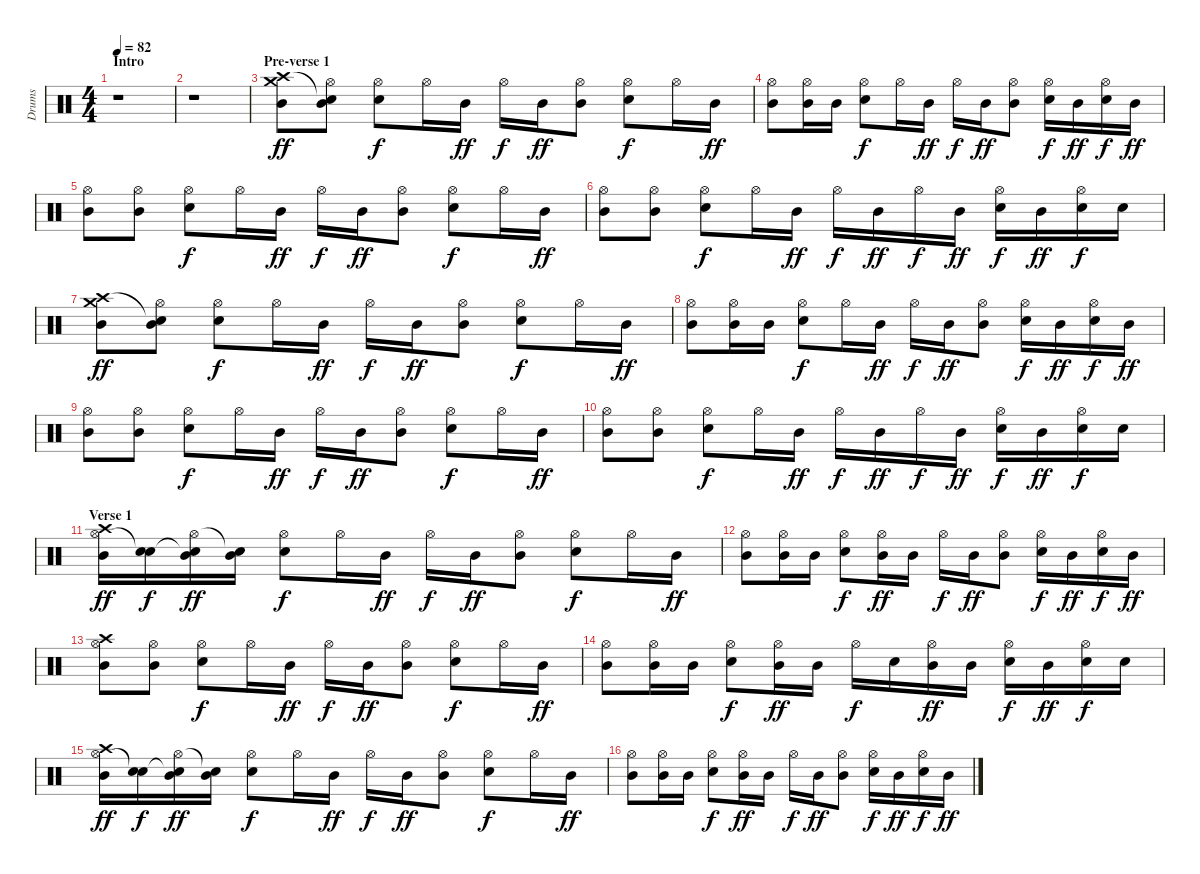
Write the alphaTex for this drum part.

\track ("Drums" "Drums") {instrument percussion}
\staff {score}
\articulation defaults
\ts (4 4)
\section ("" "Intro")
\tempo 82
\clef neutral
\ks c
r.1{dy ff} |
r.1 |
\section ("" "Pre-verse 1")
("Crash medium (hit)" "Crash high (hit)" "Mid Tom (hit)").8 ("Hi-Hat (open)" "Snare (hit)"{t} "Mid Tom (hit)").8 ("Hi-Hat (open)" "Electric Snare (hit)").8{dy f} "Hi-Hat (open)".16 "Mid Tom (hit)".16{dy ff} "Hi-Hat (open)".16{dy f} "Mid Tom (hit)".16{dy ff} ("Hi-Hat (open)" "Mid Tom (hit)").8 ("Hi-Hat (open)" "Electric Snare (hit)").8{dy f} "Hi-Hat (open)".16 "Mid Tom (hit)".16{dy ff} |
("Hi-Hat (open)" "Mid Tom (hit)").8 ("Hi-Hat (open)" "Mid Tom (hit)").16 "Mid Tom (hit)".16 ("Hi-Hat (open)" "Electric Snare (hit)").8{dy f} "Hi-Hat (open)".16 "Mid Tom (hit)".16{dy ff} "Hi-Hat (open)".16{dy f} "Mid Tom (hit)".16{dy ff} ("Hi-Hat (open)" "Mid Tom (hit)").8 ("Hi-Hat (open)" "Electric Snare (hit)").16{dy f} "Mid Tom (hit)".16{dy ff} ("Hi-Hat (open)" "Electric Snare (hit)").16{dy f} "Mid Tom (hit)".16{dy ff} |
("Hi-Hat (open)" "Mid Tom (hit)").8 ("Hi-Hat (open)" "Mid Tom (hit)").8 ("Hi-Hat (open)" "Electric Snare (hit)").8{dy f} "Hi-Hat (open)".16 "Mid Tom (hit)".16{dy ff} "Hi-Hat (open)".16{dy f} "Mid Tom (hit)".16{dy ff} ("Hi-Hat (open)" "Mid Tom (hit)").8 ("Hi-Hat (open)" "Electric Snare (hit)").8{dy f} "Hi-Hat (open)".16 "Mid Tom (hit)".16{dy ff} |
("Hi-Hat (open)" "Mid Tom (hit)").8 ("Hi-Hat (open)" "Mid Tom (hit)").8 ("Hi-Hat (open)" "Electric Snare (hit)").8{dy f} "Hi-Hat (open)".16 "Mid Tom (hit)".16{dy ff} "Hi-Hat (open)".16{dy f} "Mid Tom (hit)".16{dy ff} "Hi-Hat (open)".16{dy f} "Mid Tom (hit)".16{dy ff} ("Hi-Hat (open)" "Electric Snare (hit)").16{dy f} "Mid Tom (hit)".16{dy ff} ("Hi-Hat (open)" "Electric Snare (hit)").16{dy f} "Electric Snare (hit)".16 |
("Crash medium (hit)" "Crash high (hit)" "Mid Tom (hit)").8{dy ff} ("Hi-Hat (open)" "Snare (hit)"{t} "Mid Tom (hit)").8 ("Hi-Hat (open)" "Electric Snare (hit)").8{dy f} "Hi-Hat (open)".16 "Mid Tom (hit)".16{dy ff} "Hi-Hat (open)".16{dy f} "Mid Tom (hit)".16{dy ff} ("Hi-Hat (open)" "Mid Tom (hit)").8 ("Hi-Hat (open)" "Electric Snare (hit)").8{dy f} "Hi-Hat (open)".16 "Mid Tom (hit)".16{dy ff} |
("Hi-Hat (open)" "Mid Tom (hit)").8 ("Hi-Hat (open)" "Mid Tom (hit)").16 "Mid Tom (hit)".16 ("Hi-Hat (open)" "Electric Snare (hit)").8{dy f} "Hi-Hat (open)".16 "Mid Tom (hit)".16{dy ff} "Hi-Hat (open)".16{dy f} "Mid Tom (hit)".16{dy ff} ("Hi-Hat (open)" "Mid Tom (hit)").8 ("Hi-Hat (open)" "Electric Snare (hit)").16{dy f} "Mid Tom (hit)".16{dy ff} ("Hi-Hat (open)" "Electric Snare (hit)").16{dy f} "Mid Tom (hit)".16{dy ff} |
("Hi-Hat (open)" "Mid Tom (hit)").8 ("Hi-Hat (open)" "Mid Tom (hit)").8 ("Hi-Hat (open)" "Electric Snare (hit)").8{dy f} "Hi-Hat (open)".16 "Mid Tom (hit)".16{dy ff} "Hi-Hat (open)".16{dy f} "Mid Tom (hit)".16{dy ff} ("Hi-Hat (open)" "Mid Tom (hit)").8 ("Hi-Hat (open)" "Electric Snare (hit)").8{dy f} "Hi-Hat (open)".16 "Mid Tom (hit)".16{dy ff} |
("Hi-Hat (open)" "Mid Tom (hit)").8 ("Hi-Hat (open)" "Mid Tom (hit)").8 ("Hi-Hat (open)" "Electric Snare (hit)").8{dy f} "Hi-Hat (open)".16 "Mid Tom (hit)".16{dy ff} "Hi-Hat (open)".16{dy f} "Mid Tom (hit)".16{dy ff} "Hi-Hat (open)".16{dy f} "Mid Tom (hit)".16{dy ff} ("Hi-Hat (open)" "Electric Snare (hit)").16{dy f} "Mid Tom (hit)".16{dy ff} ("Hi-Hat (open)" "Electric Snare (hit)").16{dy f} "Electric Snare (hit)".16 |
\section ("" "Verse 1")
("Hi-Hat (open)" "Crash high (hit)" "Mid Tom (hit)").16{dy ff} ("Snare (hit)"{t} "Electric Snare (hit)").16{dy f} ("Hi-Hat (open)" "Snare (hit)"{t} "Mid Tom (hit)").16{dy ff} ("Snare (hit)"{t} "Mid Tom (hit)").16 ("Hi-Hat (open)" "Electric Snare (hit)").8{dy f} "Hi-Hat (open)".16 "Mid Tom (hit)".16{dy ff} "Hi-Hat (open)".16{dy f} "Mid Tom (hit)".16{dy ff} ("Hi-Hat (open)" "Mid Tom (hit)").8 ("Hi-Hat (open)" "Electric Snare (hit)").8{dy f} "Hi-Hat (open)".16 "Mid Tom (hit)".16{dy ff} |
("Hi-Hat (open)" "Mid Tom (hit)").8 ("Hi-Hat (open)" "Mid Tom (hit)").16 "Mid Tom (hit)".16 ("Hi-Hat (open)" "Electric Snare (hit)").8{dy f} ("Hi-Hat (open)" "Mid Tom (hit)").16{dy ff} "Mid Tom (hit)".16 "Hi-Hat (open)".16{dy f} "Mid Tom (hit)".16{dy ff} ("Hi-Hat (open)" "Mid Tom (hit)").8 ("Hi-Hat (open)" "Electric Snare (hit)").16{dy f} "Mid Tom (hit)".16{dy ff} ("Hi-Hat (open)" "Electric Snare (hit)").16{dy f} "Mid Tom (hit)".16{dy ff} |
("Hi-Hat (open)" "Crash high (hit)" "Mid Tom (hit)").8 ("Hi-Hat (open)" "Mid Tom (hit)").8 ("Hi-Hat (open)" "Electric Snare (hit)").8{dy f} "Hi-Hat (open)".16 "Mid Tom (hit)".16{dy ff} "Hi-Hat (open)".16{dy f} "Mid Tom (hit)".16{dy ff} ("Hi-Hat (open)" "Mid Tom (hit)").8 ("Hi-Hat (open)" "Electric Snare (hit)").8{dy f} "Hi-Hat (open)".16 "Mid Tom (hit)".16{dy ff} |
("Hi-Hat (open)" "Mid Tom (hit)").8 ("Hi-Hat (open)" "Mid Tom (hit)").16 "Mid Tom (hit)".16 ("Hi-Hat (open)" "Electric Snare (hit)").8{dy f} ("Hi-Hat (open)" "Mid Tom (hit)").16{dy ff} "Mid Tom (hit)".16 "Hi-Hat (open)".16{dy f} "Electric Snare (hit)".16 ("Hi-Hat (open)" "Mid Tom (hit)").16{dy ff} "Mid Tom (hit)".16 ("Hi-Hat (open)" "Electric Snare (hit)").16{dy f} "Mid Tom (hit)".16{dy ff} ("Hi-Hat (open)" "Electric Snare (hit)").16{dy f} "Electric Snare (hit)".16 |
("Hi-Hat (open)" "Crash high (hit)" "Mid Tom (hit)").16{dy ff} ("Snare (hit)"{t} "Electric Snare (hit)").16{dy f} ("Hi-Hat (open)" "Snare (hit)"{t} "Mid Tom (hit)").16{dy ff} ("Snare (hit)"{t} "Mid Tom (hit)").16 ("Hi-Hat (open)" "Electric Snare (hit)").8{dy f} "Hi-Hat (open)".16 "Mid Tom (hit)".16{dy ff} "Hi-Hat (open)".16{dy f} "Mid Tom (hit)".16{dy ff} ("Hi-Hat (open)" "Mid Tom (hit)").8 ("Hi-Hat (open)" "Electric Snare (hit)").8{dy f} "Hi-Hat (open)".16 "Mid Tom (hit)".16{dy ff} |
("Hi-Hat (open)" "Mid Tom (hit)").8 ("Hi-Hat (open)" "Mid Tom (hit)").16 "Mid Tom (hit)".16 ("Hi-Hat (open)" "Electric Snare (hit)").8{dy f} ("Hi-Hat (open)" "Mid Tom (hit)").16{dy ff} "Mid Tom (hit)".16 "Hi-Hat (open)".16{dy f} "Mid Tom (hit)".16{dy ff} ("Hi-Hat (open)" "Mid Tom (hit)").8 ("Hi-Hat (open)" "Electric Snare (hit)").16{dy f} "Mid Tom (hit)".16{dy ff} ("Hi-Hat (open)" "Electric Snare (hit)").16{dy f} "Mid Tom (hit)".16{dy ff}
